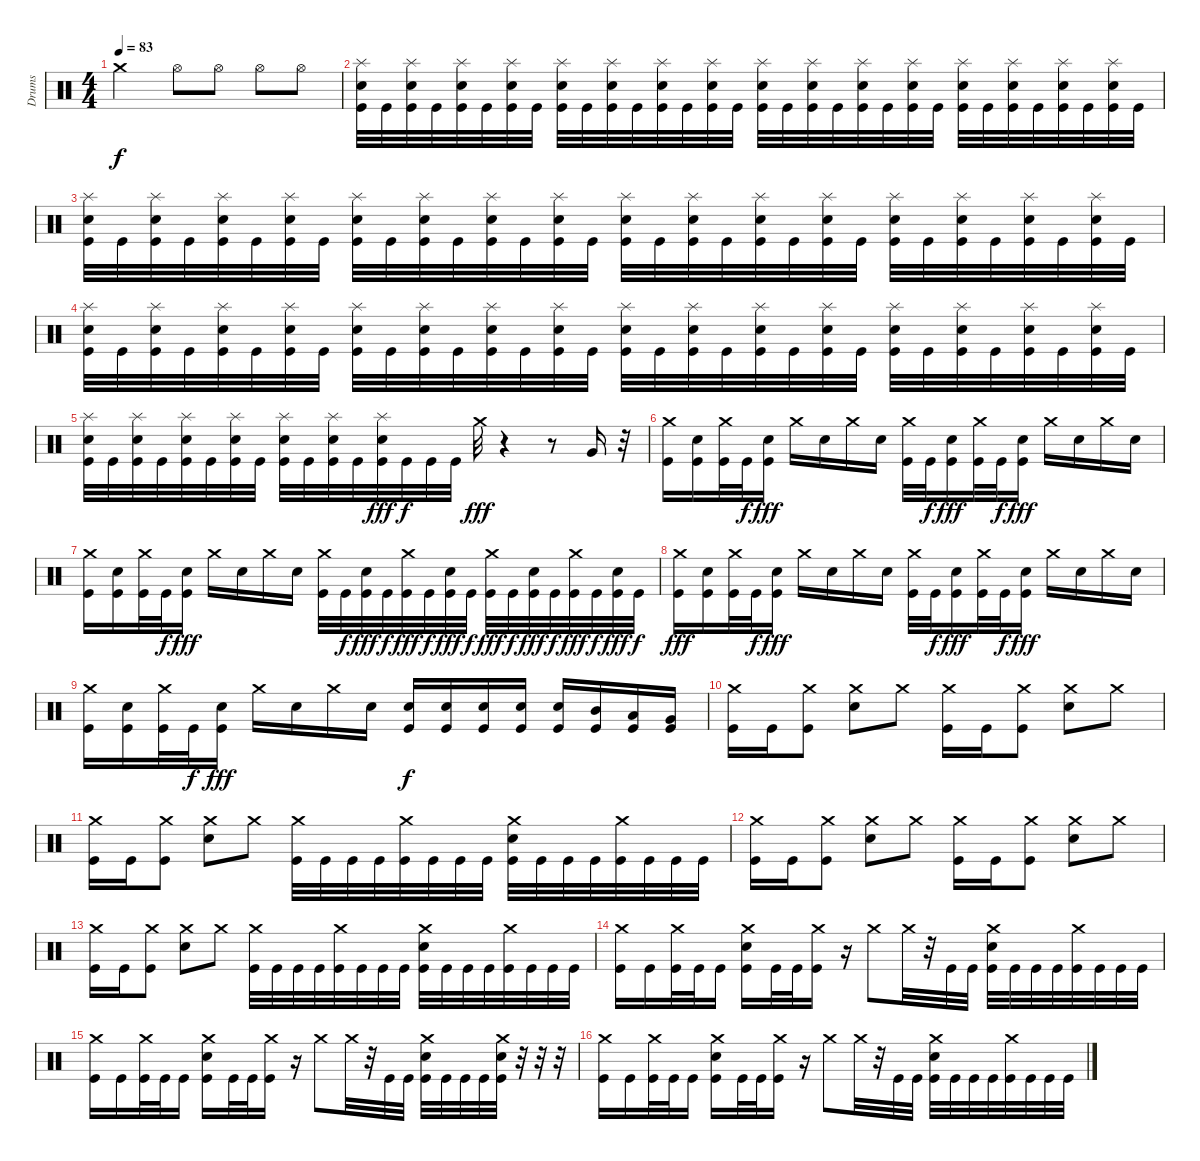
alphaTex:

\track ("Drums" "Drums") {instrument percussion}
\staff {score}
\articulation defaults
\ts (4 4)
\tempo 83
\clef neutral
\ks c "Crash medium (hit)".2{dy f} "Hi-Hat (open)".8 "Hi-Hat (open)".8 "Hi-Hat (open)".8 "Hi-Hat (open)".8
|
("Splash (hit)" "Snare (hit) 2" "Kick (hit)").32 "Kick (hit)".32 ("Splash (hit)" "Snare (hit) 2" "Kick (hit)").32 "Kick (hit)".32 ("Splash (hit)" "Snare (hit) 2" "Kick (hit)").32 "Kick (hit)".32 ("Splash (hit)" "Snare (hit) 2" "Kick (hit)").32 "Kick (hit)".32 ("Splash (hit)" "Snare (hit) 2" "Kick (hit)").32 "Kick (hit)".32 ("Splash (hit)" "Snare (hit) 2" "Kick (hit)").32 "Kick (hit)".32 ("Splash (hit)" "Snare (hit) 2" "Kick (hit)").32 "Kick (hit)".32 ("Splash (hit)" "Snare (hit) 2" "Kick (hit)").32 "Kick (hit)".32 ("Splash (hit)" "Snare (hit) 2" "Kick (hit)").32 "Kick (hit)".32 ("Splash (hit)" "Snare (hit) 2" "Kick (hit)").32 "Kick (hit)".32 ("Splash (hit)" "Snare (hit) 2" "Kick (hit)").32 "Kick (hit)".32 ("Splash (hit)" "Snare (hit) 2" "Kick (hit)").32 "Kick (hit)".32 ("Splash (hit)" "Snare (hit) 2" "Kick (hit)").32 "Kick (hit)".32 ("Splash (hit)" "Snare (hit) 2" "Kick (hit)").32 "Kick (hit)".32 ("Splash (hit)" "Snare (hit) 2" "Kick (hit)").32 "Kick (hit)".32 ("Splash (hit)" "Snare (hit) 2" "Kick (hit)").32 "Kick (hit)".32 |
("Splash (hit)" "Snare (hit) 2" "Kick (hit)").32 "Kick (hit)".32 ("Splash (hit)" "Snare (hit) 2" "Kick (hit)").32 "Kick (hit)".32 ("Splash (hit)" "Snare (hit) 2" "Kick (hit)").32 "Kick (hit)".32 ("Splash (hit)" "Snare (hit) 2" "Kick (hit)").32 "Kick (hit)".32 ("Splash (hit)" "Snare (hit) 2" "Kick (hit)").32 "Kick (hit)".32 ("Splash (hit)" "Snare (hit) 2" "Kick (hit)").32 "Kick (hit)".32 ("Splash (hit)" "Snare (hit) 2" "Kick (hit)").32 "Kick (hit)".32 ("Splash (hit)" "Snare (hit) 2" "Kick (hit)").32 "Kick (hit)".32 ("Splash (hit)" "Snare (hit) 2" "Kick (hit)").32 "Kick (hit)".32 ("Splash (hit)" "Snare (hit) 2" "Kick (hit)").32 "Kick (hit)".32 ("Splash (hit)" "Snare (hit) 2" "Kick (hit)").32 "Kick (hit)".32 ("Splash (hit)" "Snare (hit) 2" "Kick (hit)").32 "Kick (hit)".32 ("Splash (hit)" "Snare (hit) 2" "Kick (hit)").32 "Kick (hit)".32 ("Splash (hit)" "Snare (hit) 2" "Kick (hit)").32 "Kick (hit)".32 ("Splash (hit)" "Snare (hit) 2" "Kick (hit)").32 "Kick (hit)".32 ("Splash (hit)" "Snare (hit) 2" "Kick (hit)").32 "Kick (hit)".32 |
("Splash (hit)" "Snare (hit) 2" "Kick (hit)").32 "Kick (hit)".32 ("Splash (hit)" "Snare (hit) 2" "Kick (hit)").32 "Kick (hit)".32 ("Splash (hit)" "Snare (hit) 2" "Kick (hit)").32 "Kick (hit)".32 ("Splash (hit)" "Snare (hit) 2" "Kick (hit)").32 "Kick (hit)".32 ("Splash (hit)" "Snare (hit) 2" "Kick (hit)").32 "Kick (hit)".32 ("Splash (hit)" "Snare (hit) 2" "Kick (hit)").32 "Kick (hit)".32 ("Splash (hit)" "Snare (hit) 2" "Kick (hit)").32 "Kick (hit)".32 ("Splash (hit)" "Snare (hit) 2" "Kick (hit)").32 "Kick (hit)".32 ("Splash (hit)" "Snare (hit) 2" "Kick (hit)").32 "Kick (hit)".32 ("Splash (hit)" "Snare (hit) 2" "Kick (hit)").32 "Kick (hit)".32 ("Splash (hit)" "Snare (hit) 2" "Kick (hit)").32 "Kick (hit)".32 ("Splash (hit)" "Snare (hit) 2" "Kick (hit)").32 "Kick (hit)".32 ("Splash (hit)" "Snare (hit) 2" "Kick (hit)").32 "Kick (hit)".32 ("Splash (hit)" "Snare (hit) 2" "Kick (hit)").32 "Kick (hit)".32 ("Splash (hit)" "Snare (hit) 2" "Kick (hit)").32 "Kick (hit)".32 ("Splash (hit)" "Snare (hit) 2" "Kick (hit)").32 "Kick (hit)".32 |
("Splash (hit)" "Snare (hit) 2" "Kick (hit)").32 "Kick (hit)".32 ("Splash (hit)" "Snare (hit) 2" "Kick (hit)").32 "Kick (hit)".32 ("Splash (hit)" "Snare (hit) 2" "Kick (hit)").32 "Kick (hit)".32 ("Splash (hit)" "Snare (hit) 2" "Kick (hit)").32 "Kick (hit)".32 ("Splash (hit)" "Snare (hit) 2" "Kick (hit)").32 "Kick (hit)".32 ("Splash (hit)" "Snare (hit) 2" "Kick (hit)").32 "Kick (hit)".32 ("Splash (hit)" "Snare (hit) 2" "Kick (hit)").32{dy fff} "Kick (hit)".32{dy f} "Kick (hit)".32 "Kick (hit)".32 "Crash medium (hit)".32{dy fff} r.4 r.8 "Very Low Tom (hit)".16 r.32 |
("Crash medium (hit)" "Kick (hit)").16 ("Snare (hit) 2" "Kick (hit)").16 ("Crash medium (hit)" "Kick (hit)").32 "Kick (hit)".32{dy f} ("Snare (hit) 2" "Kick (hit)").16{dy fff} "Crash medium (hit)".16 "Snare (hit) 2".16 "Crash medium (hit)".16 "Snare (hit) 2".16 ("Crash medium (hit)" "Kick (hit)").32 "Kick (hit)".32{dy f} ("Snare (hit) 2" "Kick (hit)").16{dy fff} ("Crash medium (hit)" "Kick (hit)").32 "Kick (hit)".32{dy f} ("Snare (hit) 2" "Kick (hit)").16{dy fff} "Crash medium (hit)".16 "Snare (hit) 2".16 "Crash medium (hit)".16 "Snare (hit) 2".16 |
("Crash medium (hit)" "Kick (hit)").16 ("Snare (hit) 2" "Kick (hit)").16 ("Crash medium (hit)" "Kick (hit)").32 "Kick (hit)".32{dy f} ("Snare (hit) 2" "Kick (hit)").16{dy fff} "Crash medium (hit)".16 "Snare (hit) 2".16 "Crash medium (hit)".16 "Snare (hit) 2".16 ("Crash medium (hit)" "Kick (hit)").32 "Kick (hit)".32{dy f} ("Snare (hit) 2" "Kick (hit)").32{dy fff} "Kick (hit)".32{dy f} ("Crash medium (hit)" "Kick (hit)").32{dy fff} "Kick (hit)".32{dy f} ("Snare (hit) 2" "Kick (hit)").32{dy fff} "Kick (hit)".32{dy f} ("Crash medium (hit)" "Kick (hit)").32{dy fff} "Kick (hit)".32{dy f} ("Snare (hit) 2" "Kick (hit)").32{dy fff} "Kick (hit)".32{dy f} ("Crash medium (hit)" "Kick (hit)").32{dy fff} "Kick (hit)".32{dy f} ("Snare (hit) 2" "Kick (hit)").32{dy fff} "Kick (hit)".32{dy f} |
("Crash medium (hit)" "Kick (hit)").16{dy fff} ("Snare (hit) 2" "Kick (hit)").16 ("Crash medium (hit)" "Kick (hit)").32 "Kick (hit)".32{dy f} ("Snare (hit) 2" "Kick (hit)").16{dy fff} "Crash medium (hit)".16 "Snare (hit) 2".16 "Crash medium (hit)".16 "Snare (hit) 2".16 ("Crash medium (hit)" "Kick (hit)").32 "Kick (hit)".32{dy f} ("Snare (hit) 2" "Kick (hit)").16{dy fff} ("Crash medium (hit)" "Kick (hit)").32 "Kick (hit)".32{dy f} ("Snare (hit) 2" "Kick (hit)").16{dy fff} "Crash medium (hit)".16 "Snare (hit) 2".16 "Crash medium (hit)".16 "Snare (hit) 2".16 |
("Crash medium (hit)" "Kick (hit)").16 ("Snare (hit) 2" "Kick (hit)").16 ("Crash medium (hit)" "Kick (hit)").32 "Kick (hit)".32{dy f} ("Snare (hit) 2" "Kick (hit)").16{dy fff} "Crash medium (hit)".16 "Snare (hit) 2".16 "Crash medium (hit)".16 "Snare (hit) 2".16 ("Snare (hit) 2" "Kick (hit)").16{dy f} ("Snare (hit) 2" "Kick (hit)").16 ("Snare (hit) 2" "Kick (hit)").16 ("Snare (hit) 2" "Kick (hit)").16 ("Snare (hit) 2" "Kick (hit)").16 ("Mid Tom (hit)" "Kick (hit)").16 ("Low Tom (hit)" "Kick (hit)").16 ("Very Low Tom (hit)" "Kick (hit)").16 |
("Crash medium (hit)" "Kick (hit)").16 "Kick (hit)".16 ("Crash medium (hit)" "Kick (hit)").8 ("Crash medium (hit)" "Snare (hit) 2").8 "Crash medium (hit)".8 ("Crash medium (hit)" "Kick (hit)").16 "Kick (hit)".16 ("Crash medium (hit)" "Kick (hit)").8 ("Crash medium (hit)" "Snare (hit) 2").8 "Crash medium (hit)".8 |
("Crash medium (hit)" "Kick (hit)").16 "Kick (hit)".16 ("Crash medium (hit)" "Kick (hit)").8 ("Crash medium (hit)" "Snare (hit) 2").8 "Crash medium (hit)".8 ("Crash medium (hit)" "Kick (hit)").32 "Kick (hit)".32 "Kick (hit)".32 "Kick (hit)".32 ("Crash medium (hit)" "Kick (hit)").32 "Kick (hit)".32 "Kick (hit)".32 "Kick (hit)".32 ("Crash medium (hit)" "Snare (hit) 2" "Kick (hit)").32 "Kick (hit)".32 "Kick (hit)".32 "Kick (hit)".32 ("Crash medium (hit)" "Kick (hit)").32 "Kick (hit)".32 "Kick (hit)".32 "Kick (hit)".32 |
("Crash medium (hit)" "Kick (hit)").16 "Kick (hit)".16 ("Crash medium (hit)" "Kick (hit)").8 ("Crash medium (hit)" "Snare (hit) 2").8 "Crash medium (hit)".8 ("Crash medium (hit)" "Kick (hit)").16 "Kick (hit)".16 ("Crash medium (hit)" "Kick (hit)").8 ("Crash medium (hit)" "Snare (hit) 2").8 "Crash medium (hit)".8 |
("Crash medium (hit)" "Kick (hit)").16 "Kick (hit)".16 ("Crash medium (hit)" "Kick (hit)").8 ("Crash medium (hit)" "Snare (hit) 2").8 "Crash medium (hit)".8 ("Crash medium (hit)" "Kick (hit)").32 "Kick (hit)".32 "Kick (hit)".32 "Kick (hit)".32 ("Crash medium (hit)" "Kick (hit)").32 "Kick (hit)".32 "Kick (hit)".32 "Kick (hit)".32 ("Crash medium (hit)" "Snare (hit) 2" "Kick (hit)").32 "Kick (hit)".32 "Kick (hit)".32 "Kick (hit)".32 ("Crash medium (hit)" "Kick (hit)").32 "Kick (hit)".32 "Kick (hit)".32 "Kick (hit)".32 |
("Crash medium (hit)" "Kick (hit)").16 "Kick (hit)".16 ("Crash medium (hit)" "Kick (hit)").32 "Kick (hit)".32 "Kick (hit)".16 ("Crash medium (hit)" "Snare (hit) 2" "Kick (hit)").16 "Kick (hit)".32 "Kick (hit)".32 ("Crash medium (hit)" "Kick (hit)").16 r.16 "Crash medium (hit)".8 "Crash medium (hit)".32 r.32 "Kick (hit)".32 "Kick (hit)".32 ("Crash medium (hit)" "Snare (hit) 2" "Kick (hit)").32 "Kick (hit)".32 "Kick (hit)".32 "Kick (hit)".32 ("Crash medium (hit)" "Kick (hit)").32 "Kick (hit)".32 "Kick (hit)".32 "Kick (hit)".32 |
("Crash medium (hit)" "Kick (hit)").16 "Kick (hit)".16 ("Crash medium (hit)" "Kick (hit)").32 "Kick (hit)".32 "Kick (hit)".16 ("Crash medium (hit)" "Snare (hit) 2" "Kick (hit)").16 "Kick (hit)".32 "Kick (hit)".32 ("Crash medium (hit)" "Kick (hit)").16 r.16 "Crash medium (hit)".8 "Crash medium (hit)".32 r.32 "Kick (hit)".32 "Kick (hit)".32 ("Crash medium (hit)" "Snare (hit) 2" "Kick (hit)").32 "Kick (hit)".32 "Kick (hit)".32 "Kick (hit)".32 ("Crash medium (hit)" "Snare (hit) 2" "Kick (hit)").32 r.32 r.32 r.32 |
("Crash medium (hit)" "Kick (hit)").16 "Kick (hit)".16 ("Crash medium (hit)" "Kick (hit)").32 "Kick (hit)".32 "Kick (hit)".16 ("Crash medium (hit)" "Snare (hit) 2" "Kick (hit)").16 "Kick (hit)".32 "Kick (hit)".32 ("Crash medium (hit)" "Kick (hit)").16 r.16 "Crash medium (hit)".8 "Crash medium (hit)".32 r.32 "Kick (hit)".32 "Kick (hit)".32 ("Crash medium (hit)" "Snare (hit) 2" "Kick (hit)").32 "Kick (hit)".32 "Kick (hit)".32 "Kick (hit)".32 ("Crash medium (hit)" "Kick (hit)").32 "Kick (hit)".32 "Kick (hit)".32 "Kick (hit)".32
